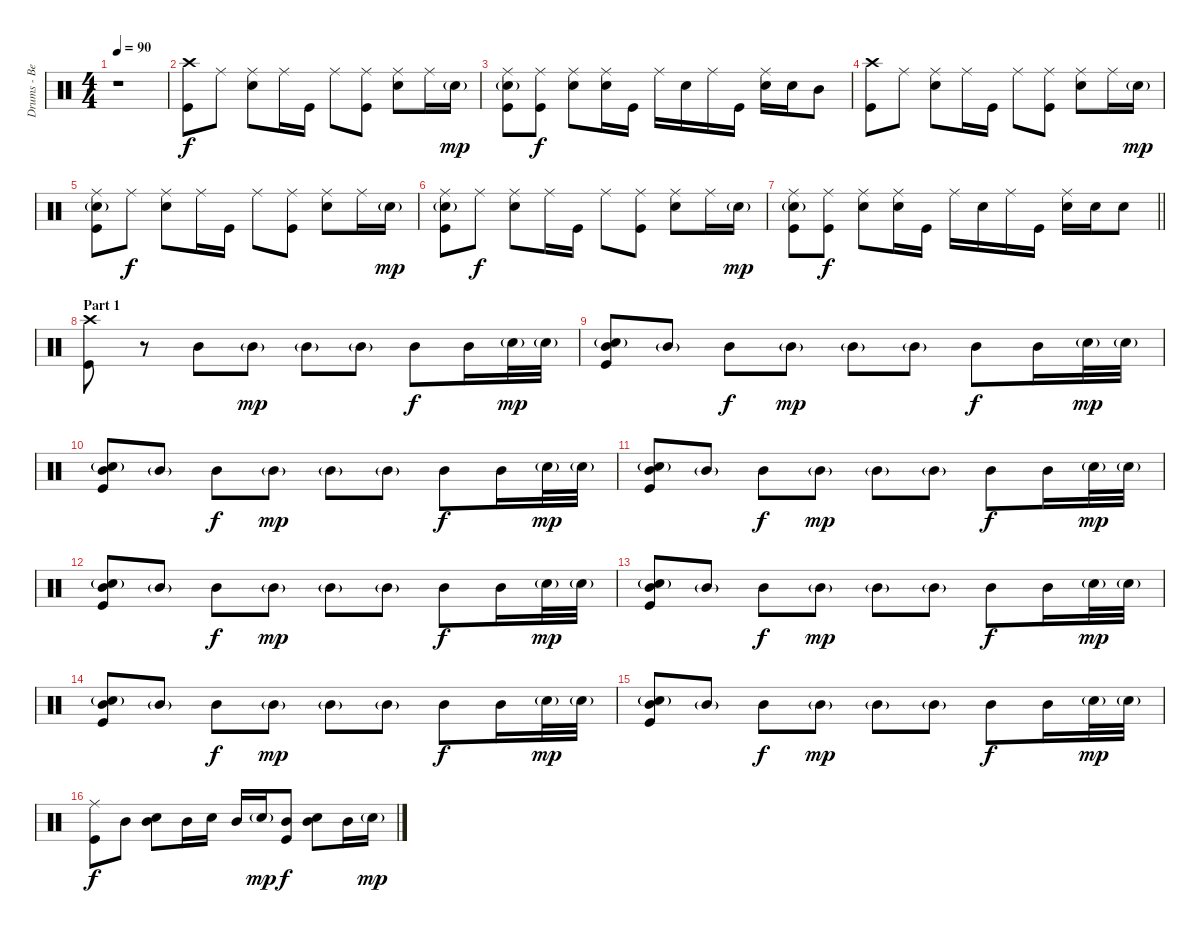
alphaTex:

\track ("Drums - Ben Johnston" "Drums - Be") {instrument percussion}
\staff {score}
\articulation defaults
\ts (4 4)
\tempo 90
\clef neutral
\ks c
r.1{dy f} |
("Crash high (hit)" "Kick (hit)").8 "Ride (middle)".8 ("Ride (middle)" "Snare (hit) 2").8 "Ride (middle)".16 "Kick (hit)".16 "Ride (middle)".8 ("Ride (middle)" "Kick (hit)").8 ("Ride (middle)" "Snare (hit) 2").8 "Ride (middle)".16 "Snare (hit) 2"{g}.16{dy mp} |
("Ride (middle)" "Snare (hit) 2"{g} "Kick (hit)").8 ("Ride (middle)" "Kick (hit)").8{dy f} ("Ride (middle)" "Snare (hit) 2").8 ("Ride (middle)" "Snare (hit) 2").16 "Kick (hit)".16 "Ride (middle)".16 "Snare (hit) 2".16 "Ride (middle)".16 "Kick (hit)".16 ("Ride (middle)" "Snare (hit) 2").16 "Snare (hit) 2".16 "Mid Tom (hit)".8 |
("Crash high (hit)" "Kick (hit)").8 "Ride (middle)".8 ("Ride (middle)" "Snare (hit) 2").8 "Ride (middle)".16 "Kick (hit)".16 "Ride (middle)".8 ("Ride (middle)" "Kick (hit)").8 ("Ride (middle)" "Snare (hit) 2").8 "Ride (middle)".16 "Snare (hit) 2"{g}.16{dy mp} |
("Ride (middle)" "Snare (hit) 2"{g} "Kick (hit)").8 "Ride (middle)".8{dy f} ("Ride (middle)" "Snare (hit) 2").8 "Ride (middle)".16 "Kick (hit)".16 "Ride (middle)".8 ("Ride (middle)" "Kick (hit)").8 ("Ride (middle)" "Snare (hit) 2").8 "Ride (middle)".16 "Snare (hit) 2"{g}.16{dy mp} |
("Ride (middle)" "Snare (hit) 2"{g} "Kick (hit)").8 "Ride (middle)".8{dy f} ("Ride (middle)" "Snare (hit) 2").8 "Ride (middle)".16 "Kick (hit)".16 "Ride (middle)".8 ("Ride (middle)" "Kick (hit)").8 ("Ride (middle)" "Snare (hit) 2").8 "Ride (middle)".16 "Snare (hit) 2"{g}.16{dy mp} |
\barLineRight lightlight
("Ride (middle)" "Snare (hit) 2"{g} "Kick (hit)").8 ("Ride (middle)" "Kick (hit)").8{dy f} ("Ride (middle)" "Snare (hit) 2").8 ("Ride (middle)" "Snare (hit) 2").16 "Kick (hit)".16 "Ride (middle)".16 "Snare (hit) 2".16 "Ride (middle)".16 "Kick (hit)".16 ("Ride (middle)" "Snare (hit) 2").16 "Snare (hit) 2".16 "Snare (hit) 2".8 |
\section ("" "Part 1")
("Crash high (hit)" "Kick (hit)").8 r.8 "Mid Tom (hit)".8 "Mid Tom (hit)"{g}.8{dy mp} "Mid Tom (hit)"{g}.8 "Mid Tom (hit)"{g}.8 "Mid Tom (hit)".8{dy f} "Mid Tom (hit)".16 "Snare (hit) 2"{g}.32{dy mp} "Snare (hit) 2"{g}.32 |
("Mid Tom (hit)" "Snare (hit) 2"{g} "Kick (hit)").8 "Mid Tom (hit)"{g}.8 "Mid Tom (hit)".8{dy f} "Mid Tom (hit)"{g}.8{dy mp} "Mid Tom (hit)"{g}.8 "Mid Tom (hit)"{g}.8 "Mid Tom (hit)".8{dy f} "Mid Tom (hit)".16 "Snare (hit) 2"{g}.32{dy mp} "Snare (hit) 2"{g}.32 |
("Mid Tom (hit)" "Snare (hit) 2"{g} "Kick (hit)").8 "Mid Tom (hit)"{g}.8 "Mid Tom (hit)".8{dy f} "Mid Tom (hit)"{g}.8{dy mp} "Mid Tom (hit)"{g}.8 "Mid Tom (hit)"{g}.8 "Mid Tom (hit)".8{dy f} "Mid Tom (hit)".16 "Snare (hit) 2"{g}.32{dy mp} "Snare (hit) 2"{g}.32 |
("Mid Tom (hit)" "Snare (hit) 2"{g} "Kick (hit)").8 "Mid Tom (hit)"{g}.8 "Mid Tom (hit)".8{dy f} "Mid Tom (hit)"{g}.8{dy mp} "Mid Tom (hit)"{g}.8 "Mid Tom (hit)"{g}.8 "Mid Tom (hit)".8{dy f} "Mid Tom (hit)".16 "Snare (hit) 2"{g}.32{dy mp} "Snare (hit) 2"{g}.32 |
("Mid Tom (hit)" "Snare (hit) 2"{g} "Kick (hit)").8 "Mid Tom (hit)"{g}.8 "Mid Tom (hit)".8{dy f} "Mid Tom (hit)"{g}.8{dy mp} "Mid Tom (hit)"{g}.8 "Mid Tom (hit)"{g}.8 "Mid Tom (hit)".8{dy f} "Mid Tom (hit)".16 "Snare (hit) 2"{g}.32{dy mp} "Snare (hit) 2"{g}.32 |
("Mid Tom (hit)" "Snare (hit) 2"{g} "Kick (hit)").8 "Mid Tom (hit)"{g}.8 "Mid Tom (hit)".8{dy f} "Mid Tom (hit)"{g}.8{dy mp} "Mid Tom (hit)"{g}.8 "Mid Tom (hit)"{g}.8 "Mid Tom (hit)".8{dy f} "Mid Tom (hit)".16 "Snare (hit) 2"{g}.32{dy mp} "Snare (hit) 2"{g}.32 |
("Mid Tom (hit)" "Snare (hit) 2"{g} "Kick (hit)").8 "Mid Tom (hit)"{g}.8 "Mid Tom (hit)".8{dy f} "Mid Tom (hit)"{g}.8{dy mp} "Mid Tom (hit)"{g}.8 "Mid Tom (hit)"{g}.8 "Mid Tom (hit)".8{dy f} "Mid Tom (hit)".16 "Snare (hit) 2"{g}.32{dy mp} "Snare (hit) 2"{g}.32 |
("Mid Tom (hit)" "Snare (hit) 2"{g} "Kick (hit)").8 "Mid Tom (hit)"{g}.8 "Mid Tom (hit)".8{dy f} "Mid Tom (hit)"{g}.8{dy mp} "Mid Tom (hit)"{g}.8 "Mid Tom (hit)"{g}.8 "Mid Tom (hit)".8{dy f} "Mid Tom (hit)".16 "Snare (hit) 2"{g}.32{dy mp} "Snare (hit) 2"{g}.32 |
("Ride (middle)" "Kick (hit)").8{dy f} "Mid Tom (hit)".8 ("Mid Tom (hit)" "Snare (hit) 2").8 "Mid Tom (hit)".16 "Snare (hit) 2".16 "Mid Tom (hit)".16 "Snare (hit) 2"{g}.16{dy mp} ("Mid Tom (hit)" "Kick (hit)").8{dy f} ("Mid Tom (hit)" "Snare (hit) 2").8 "Mid Tom (hit)".16 "Snare (hit) 2"{g}.16{dy mp}
